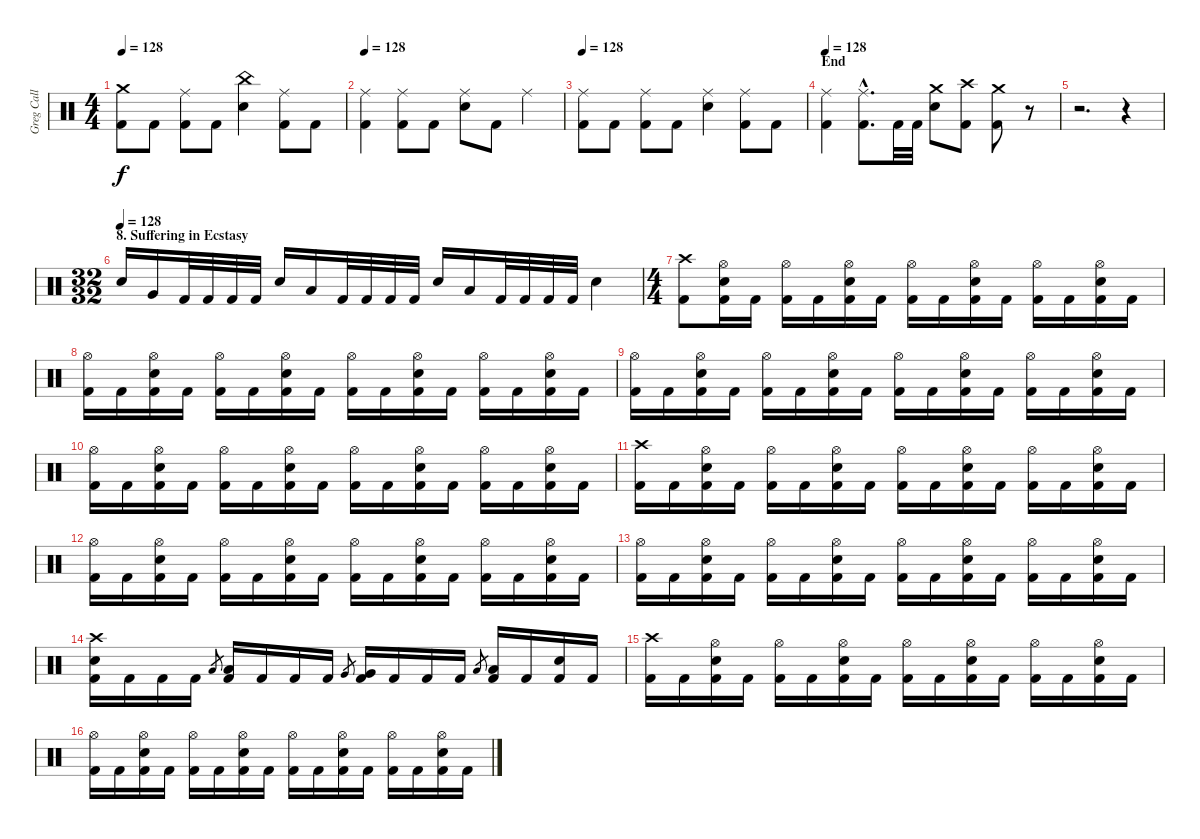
\track ("Greg Call (Drums)" "Greg Call ") {instrument percussion}
\staff {score}
\articulation defaults
\ts (4 4)
\tempo 128
\clef neutral
\ks c
("Crash medium (hit)" "Kick (hit) 2").8{dy f} "Kick (hit) 2".8 ("Ride (middle)" "Kick (hit) 2").8 "Kick (hit) 2".8 ("China (hit)" "Snare (hit) 2").4 ("Ride (middle)" "Kick (hit) 2").8 "Kick (hit) 2".8 |
\tempo 128
("Ride (middle)" "Kick (hit) 2").4 ("Ride (middle)" "Kick (hit) 2").8 "Kick (hit) 2".8 ("Ride (middle)" "Snare (hit) 2").8 "Kick (hit) 2".8 "Ride (middle)".4 |
\tempo 128
("Ride (middle)" "Kick (hit) 2").8 "Kick (hit) 2".8 ("Ride (middle)" "Kick (hit) 2").8 "Kick (hit) 2".8 ("Ride (middle)" "Snare (hit) 2").4 ("Ride (middle)" "Kick (hit) 2").8 "Kick (hit) 2".8 |
\section ("" "End")
\tempo 128
("Ride (middle)" "Kick (hit) 2").4 ("Ride (middle)"{hac} "Kick (hit) 2"{hac}).8{d} "Kick (hit) 2".32 "Kick (hit) 2".32 ("Crash medium (hit)" "Snare (hit) 2").8 ("Crash high (hit)" "Kick (hit) 2").8 ("Crash medium (hit)" "Kick (hit) 2").8 r.8{volume 0} |
r.2{d} r.4{volume 16} |
\ts (32 32)
\section ("" "8. Suffering in Ecstasy")
\tempo (128)
"Snare (hit) 2".16 "Very Low Tom (hit)".16 "Kick (hit) 2".32 "Kick (hit) 2".32 "Kick (hit) 2".32 "Kick (hit) 2".32 "Snare (hit) 2".16 "Low Floor Tom (hit)".16 "Kick (hit) 2".32 "Kick (hit) 2".32 "Kick (hit) 2".32 "Kick (hit) 2".32 "Snare (hit) 2".16 "Low Floor Tom (hit)".16 "Kick (hit) 2".32 "Kick (hit) 2".32 "Kick (hit) 2".32 "Kick (hit) 2".32 "Snare (hit) 2".4 |
\ts (4 4)
("Kick (hit) 2" "Crash high (hit)").8 ("Hi-Hat (open)" "Snare (hit) 2" "Kick (hit) 2").16 "Kick (hit) 2".16 ("Hi-Hat (open)" "Kick (hit) 2").16 "Kick (hit) 2".16 ("Kick (hit) 2" "Hi-Hat (open)" "Snare (hit) 2").16 "Kick (hit) 2".16 ("Hi-Hat (open)" "Kick (hit) 2").16 "Kick (hit) 2".16 ("Hi-Hat (open)" "Snare (hit) 2" "Kick (hit) 2").16 "Kick (hit) 2".16 ("Hi-Hat (open)" "Kick (hit) 2").16 "Kick (hit) 2".16 ("Hi-Hat (open)" "Snare (hit) 2" "Kick (hit) 2").16 "Kick (hit) 2".16 |
("Hi-Hat (open)" "Kick (hit) 2").16 "Kick (hit) 2".16 ("Hi-Hat (open)" "Snare (hit) 2" "Kick (hit) 2").16 "Kick (hit) 2".16 ("Hi-Hat (open)" "Kick (hit) 2").16 "Kick (hit) 2".16 ("Snare (hit) 2" "Hi-Hat (open)" "Kick (hit) 2").16 "Kick (hit) 2".16 ("Hi-Hat (open)" "Kick (hit) 2").16 "Kick (hit) 2".16 ("Snare (hit) 2" "Hi-Hat (open)" "Kick (hit) 2").16 "Kick (hit) 2".16 ("Hi-Hat (open)" "Kick (hit) 2").16 "Kick (hit) 2".16 ("Snare (hit) 2" "Hi-Hat (open)" "Kick (hit) 2").16 "Kick (hit) 2".16 |
("Hi-Hat (open)" "Kick (hit) 2").16 "Kick (hit) 2".16 ("Hi-Hat (open)" "Snare (hit) 2" "Kick (hit) 2").16 "Kick (hit) 2".16 ("Hi-Hat (open)" "Kick (hit) 2").16 "Kick (hit) 2".16 ("Snare (hit) 2" "Hi-Hat (open)" "Kick (hit) 2").16 "Kick (hit) 2".16 ("Hi-Hat (open)" "Kick (hit) 2").16 "Kick (hit) 2".16 ("Snare (hit) 2" "Hi-Hat (open)" "Kick (hit) 2").16 "Kick (hit) 2".16 ("Hi-Hat (open)" "Kick (hit) 2").16 "Kick (hit) 2".16 ("Snare (hit) 2" "Hi-Hat (open)" "Kick (hit) 2").16 "Kick (hit) 2".16 |
("Hi-Hat (open)" "Kick (hit) 2").16 "Kick (hit) 2".16 ("Hi-Hat (open)" "Snare (hit) 2" "Kick (hit) 2").16 "Kick (hit) 2".16 ("Hi-Hat (open)" "Kick (hit) 2").16 "Kick (hit) 2".16 ("Snare (hit) 2" "Hi-Hat (open)" "Kick (hit) 2").16 "Kick (hit) 2".16 ("Hi-Hat (open)" "Kick (hit) 2").16 "Kick (hit) 2".16 ("Snare (hit) 2" "Hi-Hat (open)" "Kick (hit) 2").16 "Kick (hit) 2".16 ("Hi-Hat (open)" "Kick (hit) 2").16 "Kick (hit) 2".16 ("Snare (hit) 2" "Hi-Hat (open)" "Kick (hit) 2").16 "Kick (hit) 2".16 |
("Crash high (hit)" "Kick (hit) 2").16 "Kick (hit) 2".16 ("Hi-Hat (open)" "Snare (hit) 2" "Kick (hit) 2").16 "Kick (hit) 2".16 ("Hi-Hat (open)" "Kick (hit) 2").16 "Kick (hit) 2".16 ("Snare (hit) 2" "Hi-Hat (open)" "Kick (hit) 2").16 "Kick (hit) 2".16 ("Hi-Hat (open)" "Kick (hit) 2").16 "Kick (hit) 2".16 ("Snare (hit) 2" "Hi-Hat (open)" "Kick (hit) 2").16 "Kick (hit) 2".16 ("Hi-Hat (open)" "Kick (hit) 2").16 "Kick (hit) 2".16 ("Snare (hit) 2" "Hi-Hat (open)" "Kick (hit) 2").16 "Kick (hit) 2".16 |
("Hi-Hat (open)" "Kick (hit) 2").16 "Kick (hit) 2".16 ("Hi-Hat (open)" "Snare (hit) 2" "Kick (hit) 2").16 "Kick (hit) 2".16 ("Hi-Hat (open)" "Kick (hit) 2").16 "Kick (hit) 2".16 ("Snare (hit) 2" "Hi-Hat (open)" "Kick (hit) 2").16 "Kick (hit) 2".16 ("Hi-Hat (open)" "Kick (hit) 2").16 "Kick (hit) 2".16 ("Snare (hit) 2" "Hi-Hat (open)" "Kick (hit) 2").16 "Kick (hit) 2".16 ("Hi-Hat (open)" "Kick (hit) 2").16 "Kick (hit) 2".16 ("Snare (hit) 2" "Hi-Hat (open)" "Kick (hit) 2").16 "Kick (hit) 2".16 |
("Hi-Hat (open)" "Kick (hit) 2").16 "Kick (hit) 2".16 ("Hi-Hat (open)" "Snare (hit) 2" "Kick (hit) 2").16 "Kick (hit) 2".16 ("Hi-Hat (open)" "Kick (hit) 2").16 "Kick (hit) 2".16 ("Snare (hit) 2" "Hi-Hat (open)" "Kick (hit) 2").16 "Kick (hit) 2".16 ("Hi-Hat (open)" "Kick (hit) 2").16 "Kick (hit) 2".16 ("Snare (hit) 2" "Hi-Hat (open)" "Kick (hit) 2").16 "Kick (hit) 2".16 ("Hi-Hat (open)" "Kick (hit) 2").16 "Kick (hit) 2".16 ("Snare (hit) 2" "Hi-Hat (open)" "Kick (hit) 2").16 "Kick (hit) 2".16 |
("Crash high (hit)" "Snare (hit) 2" "Kick (hit) 2").16 "Kick (hit) 2".16 "Kick (hit) 2".16 "Kick (hit) 2".16 "Low Tom (hit)".8{gr} ("Low Tom (hit)" "Kick (hit) 2").16 "Kick (hit) 2".16 "Kick (hit) 2".16 "Kick (hit) 2".16 "Very Low Tom (hit)".8{gr} ("Very Low Tom (hit)" "Kick (hit) 2").16 "Kick (hit) 2".16 "Kick (hit) 2".16 "Kick (hit) 2".16 "Low Floor Tom (hit)".8{gr} ("Low Floor Tom (hit)" "Kick (hit) 2").16 "Kick (hit) 2".16 ("Snare (hit) 2" "Kick (hit) 2").16 "Kick (hit) 2".16 |
("Crash high (hit)" "Kick (hit) 2").16 "Kick (hit) 2".16 ("Hi-Hat (open)" "Snare (hit) 2" "Kick (hit) 2").16 "Kick (hit) 2".16 ("Hi-Hat (open)" "Kick (hit) 2").16 "Kick (hit) 2".16 ("Snare (hit) 2" "Hi-Hat (open)" "Kick (hit) 2").16 "Kick (hit) 2".16 ("Hi-Hat (open)" "Kick (hit) 2").16 "Kick (hit) 2".16 ("Snare (hit) 2" "Hi-Hat (open)" "Kick (hit) 2").16 "Kick (hit) 2".16 ("Hi-Hat (open)" "Kick (hit) 2").16 "Kick (hit) 2".16 ("Snare (hit) 2" "Hi-Hat (open)" "Kick (hit) 2").16 "Kick (hit) 2".16 |
("Hi-Hat (open)" "Kick (hit) 2").16 "Kick (hit) 2".16 ("Hi-Hat (open)" "Snare (hit) 2" "Kick (hit) 2").16 "Kick (hit) 2".16 ("Hi-Hat (open)" "Kick (hit) 2").16 "Kick (hit) 2".16 ("Snare (hit) 2" "Hi-Hat (open)" "Kick (hit) 2").16 "Kick (hit) 2".16 ("Hi-Hat (open)" "Kick (hit) 2").16 "Kick (hit) 2".16 ("Snare (hit) 2" "Hi-Hat (open)" "Kick (hit) 2").16 "Kick (hit) 2".16 ("Hi-Hat (open)" "Kick (hit) 2").16 "Kick (hit) 2".16 ("Snare (hit) 2" "Hi-Hat (open)" "Kick (hit) 2").16 "Kick (hit) 2".16
